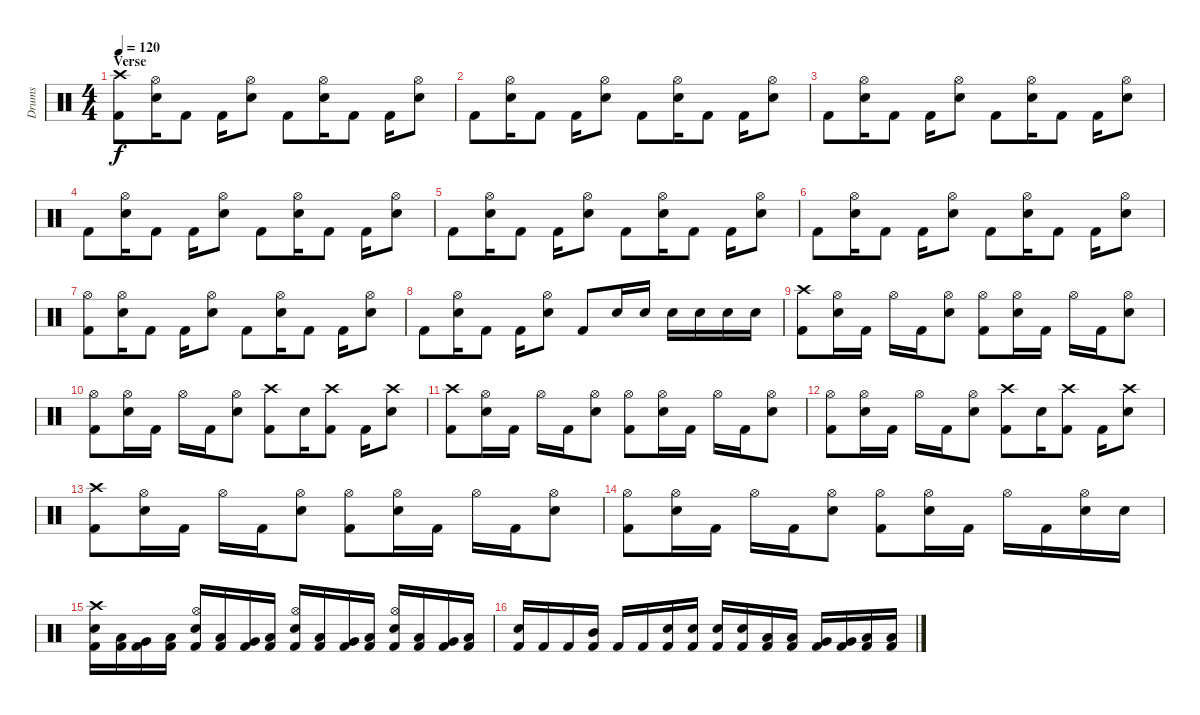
\track ("Drums" "Drums") {instrument percussion}
\staff {score}
\articulation defaults
\ts (4 4)
\section ("" "Verse")
\tempo 120
\clef neutral
\ks c
("Crash high (hit)" "Kick (hit) 2").8{dy f} ("Hi-Hat (open)" "Snare (hit) 2").16 "Kick (hit) 2".8 "Kick (hit) 2".16 ("Hi-Hat (open)" "Snare (hit) 2").8 "Kick (hit) 2".8 ("Hi-Hat (open)" "Snare (hit) 2").16 "Kick (hit) 2".8 "Kick (hit) 2".16 ("Hi-Hat (open)" "Snare (hit) 2").8 |
"Kick (hit) 2".8 ("Hi-Hat (open)" "Snare (hit) 2").16 "Kick (hit) 2".8 "Kick (hit) 2".16 ("Hi-Hat (open)" "Snare (hit) 2").8 "Kick (hit) 2".8 ("Hi-Hat (open)" "Snare (hit) 2").16 "Kick (hit) 2".8 "Kick (hit) 2".16 ("Hi-Hat (open)" "Snare (hit) 2").8 |
"Kick (hit) 2".8 ("Hi-Hat (open)" "Snare (hit) 2").16 "Kick (hit) 2".8 "Kick (hit) 2".16 ("Hi-Hat (open)" "Snare (hit) 2").8 "Kick (hit) 2".8 ("Hi-Hat (open)" "Snare (hit) 2").16 "Kick (hit) 2".8 "Kick (hit) 2".16 ("Hi-Hat (open)" "Snare (hit) 2").8 |
"Kick (hit) 2".8 ("Hi-Hat (open)" "Snare (hit) 2").16 "Kick (hit) 2".8 "Kick (hit) 2".16 ("Hi-Hat (open)" "Snare (hit) 2").8 "Kick (hit) 2".8 ("Hi-Hat (open)" "Snare (hit) 2").16 "Kick (hit) 2".8 "Kick (hit) 2".16 ("Hi-Hat (open)" "Snare (hit) 2").8 |
"Kick (hit) 2".8 ("Hi-Hat (open)" "Snare (hit) 2").16 "Kick (hit) 2".8 "Kick (hit) 2".16 ("Hi-Hat (open)" "Snare (hit) 2").8 "Kick (hit) 2".8 ("Hi-Hat (open)" "Snare (hit) 2").16 "Kick (hit) 2".8 "Kick (hit) 2".16 ("Hi-Hat (open)" "Snare (hit) 2").8 |
"Kick (hit) 2".8 ("Hi-Hat (open)" "Snare (hit) 2").16 "Kick (hit) 2".8 "Kick (hit) 2".16 ("Hi-Hat (open)" "Snare (hit) 2").8 "Kick (hit) 2".8 ("Hi-Hat (open)" "Snare (hit) 2").16 "Kick (hit) 2".8 "Kick (hit) 2".16 ("Hi-Hat (open)" "Snare (hit) 2").8 |
("Hi-Hat (open)" "Kick (hit) 2").8 ("Hi-Hat (open)" "Snare (hit) 2").16 "Kick (hit) 2".8 "Kick (hit) 2".16 ("Hi-Hat (open)" "Snare (hit) 2").8 "Kick (hit) 2".8 ("Hi-Hat (open)" "Snare (hit) 2").16 "Kick (hit) 2".8 "Kick (hit) 2".16 ("Hi-Hat (open)" "Snare (hit) 2").8 |
"Kick (hit) 2".8 ("Hi-Hat (open)" "Snare (hit) 2").16 "Kick (hit) 2".8 "Kick (hit) 2".16 ("Hi-Hat (open)" "Snare (hit) 2").8 "Kick (hit) 2".8 "Snare (hit) 2".16 "Snare (hit) 2".16 "Snare (hit) 2".16 "Snare (hit) 2".16 "Snare (hit) 2".16 "Snare (hit) 2".16 |
("Crash high (hit)" "Kick (hit) 2").8 ("Hi-Hat (open)" "Snare (hit) 2").16 "Kick (hit) 2".16 "Hi-Hat (open)".16 "Kick (hit) 2".16 ("Hi-Hat (open)" "Snare (hit) 2").8 ("Hi-Hat (open)" "Kick (hit) 2").8 ("Hi-Hat (open)" "Snare (hit) 2").16 "Kick (hit) 2".16 "Hi-Hat (open)".16 "Kick (hit) 2".16 ("Hi-Hat (open)" "Snare (hit) 2").8 |
("Hi-Hat (open)" "Kick (hit) 2").8 ("Hi-Hat (open)" "Snare (hit) 2").16 "Kick (hit) 2".16 "Hi-Hat (open)".16 "Kick (hit) 2".16 ("Hi-Hat (open)" "Snare (hit) 2").8 ("Crash high (hit)" "Kick (hit) 2").8 "Snare (hit) 2".16 ("Crash high (hit)" "Kick (hit) 2").8 "Kick (hit) 2".16 ("Crash high (hit)" "Snare (hit) 2").8 |
("Crash high (hit)" "Kick (hit) 2").8 ("Hi-Hat (open)" "Snare (hit) 2").16 "Kick (hit) 2".16 "Hi-Hat (open)".16 "Kick (hit) 2".16 ("Hi-Hat (open)" "Snare (hit) 2").8 ("Hi-Hat (open)" "Kick (hit) 2").8 ("Hi-Hat (open)" "Snare (hit) 2").16 "Kick (hit) 2".16 "Hi-Hat (open)".16 "Kick (hit) 2".16 ("Hi-Hat (open)" "Snare (hit) 2").8 |
("Hi-Hat (open)" "Kick (hit) 2").8 ("Hi-Hat (open)" "Snare (hit) 2").16 "Kick (hit) 2".16 "Hi-Hat (open)".16 "Kick (hit) 2".16 ("Hi-Hat (open)" "Snare (hit) 2").8 ("Crash high (hit)" "Kick (hit) 2").8 "Snare (hit) 2".16 ("Crash high (hit)" "Kick (hit) 2").8 "Kick (hit) 2".16 ("Crash high (hit)" "Snare (hit) 2").8 |
("Crash high (hit)" "Kick (hit) 2").8 ("Hi-Hat (open)" "Snare (hit) 2").16 "Kick (hit) 2".16 "Hi-Hat (open)".16 "Kick (hit) 2".16 ("Hi-Hat (open)" "Snare (hit) 2").8 ("Hi-Hat (open)" "Kick (hit) 2").8 ("Hi-Hat (open)" "Snare (hit) 2").16 "Kick (hit) 2".16 "Hi-Hat (open)".16 "Kick (hit) 2".16 ("Hi-Hat (open)" "Snare (hit) 2").8 |
("Hi-Hat (open)" "Kick (hit) 2").8 ("Hi-Hat (open)" "Snare (hit) 2").16 "Kick (hit) 2".16 "Hi-Hat (open)".16 "Kick (hit) 2".16 ("Hi-Hat (open)" "Snare (hit) 2").8 ("Hi-Hat (open)" "Kick (hit) 2").8 ("Hi-Hat (open)" "Snare (hit) 2").16 "Kick (hit) 2".16 "Hi-Hat (open)".16 "Kick (hit) 2".16 ("Hi-Hat (open)" "Snare (hit) 2").16 "Snare (hit) 2".16 |
("Crash high (hit)" "Snare (hit) 2" "Kick (hit) 2").16 ("Low Tom (hit)" "Kick (hit) 2").16 ("Very Low Tom (hit)" "Kick (hit) 2").16 ("Low Floor Tom (hit)" "Kick (hit) 2").16 ("Hi-Hat (open)" "Snare (hit) 2" "Kick (hit) 2").16 ("Low Tom (hit)" "Kick (hit) 2").16 ("Very Low Tom (hit)" "Kick (hit) 2").16 ("Low Floor Tom (hit)" "Kick (hit) 2").16 ("Hi-Hat (open)" "Snare (hit) 2" "Kick (hit) 2").16 ("Low Tom (hit)" "Kick (hit) 2").16 ("Very Low Tom (hit)" "Kick (hit) 2").16 ("Low Floor Tom (hit)" "Kick (hit) 2").16 ("Hi-Hat (open)" "Snare (hit) 2" "Kick (hit) 2").16 ("Low Tom (hit)" "Kick (hit) 2").16 ("Very Low Tom (hit)" "Kick (hit) 2").16 ("Low Floor Tom (hit)" "Kick (hit) 2").16 |
("Snare (hit) 2" "Kick (hit) 2").16 "Kick (hit) 2".16 "Kick (hit) 2".16 ("Mid Tom (hit)" "Kick (hit) 2").16 "Kick (hit) 2".16 "Kick (hit) 2".16 ("Snare (hit) 2" "Kick (hit) 2").16 ("Snare (hit) 2" "Kick (hit) 2").16 ("Snare (hit) 2" "Kick (hit) 2").16 ("Snare (hit) 2" "Kick (hit) 2").16 ("Low Tom (hit)" "Kick (hit) 2").16 ("Low Tom (hit)" "Kick (hit) 2").16 ("Very Low Tom (hit)" "Kick (hit) 2").16 ("Very Low Tom (hit)" "Kick (hit) 2").16 ("Low Floor Tom (hit)" "Kick (hit) 2").16 ("Low Floor Tom (hit)" "Kick (hit) 2").16
